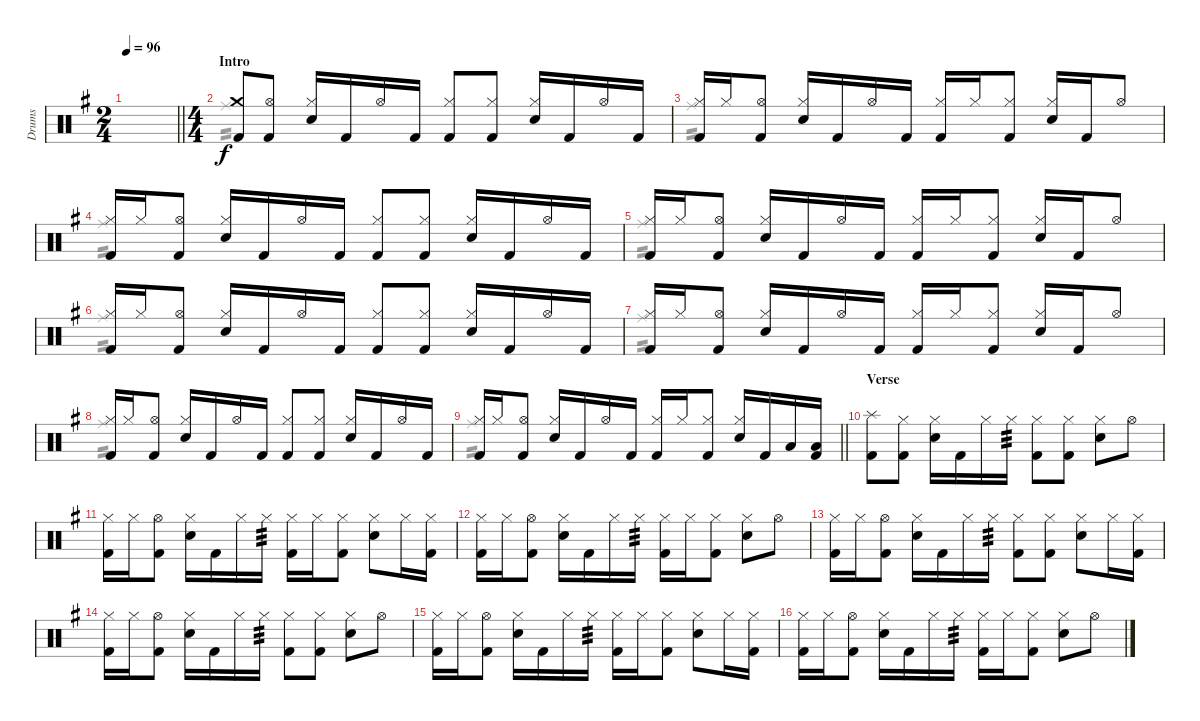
\track ("Drums" "Drums") {instrument percussion}
\staff {score}
\articulation defaults
\voice
\ts (2 4)
\tempo 96
\clef neutral
\barLineRight lightlight
\ks g
|
\ts (4 4)
\section ("" "Intro")
("Crash medium (hit)" "Kick (hit) 2").8 ("Hi-Hat (open)" "Kick (hit) 2").8 ("Hi-Hat (closed)" "Electric Snare (hit)").16 "Kick (hit) 2".16 "Hi-Hat (open)".16 "Kick (hit) 2".16 ("Hi-Hat (closed)" "Kick (hit) 2").8 ("Hi-Hat (closed)" "Kick (hit) 2").8 ("Hi-Hat (closed)" "Electric Snare (hit)").16 "Kick (hit) 2".16 "Hi-Hat (open)".16 "Kick (hit) 2".16 |
("Hi-Hat (closed)" "Kick (hit) 2").16 "Hi-Hat (closed)".16 ("Hi-Hat (open)" "Kick (hit) 2").8 ("Hi-Hat (closed)" "Electric Snare (hit)").16 "Kick (hit) 2".16 "Hi-Hat (open)".16 "Kick (hit) 2".16 ("Hi-Hat (closed)" "Kick (hit) 2").16 "Hi-Hat (closed)".16 ("Hi-Hat (closed)" "Kick (hit) 2").8 ("Hi-Hat (closed)" "Electric Snare (hit)").16 "Kick (hit) 2".16 "Hi-Hat (open)".8 |
("Hi-Hat (closed)" "Kick (hit) 2").16 "Hi-Hat (closed)".16 ("Hi-Hat (open)" "Kick (hit) 2").8 ("Hi-Hat (closed)" "Electric Snare (hit)").16 "Kick (hit) 2".16 "Hi-Hat (open)".16 "Kick (hit) 2".16 ("Hi-Hat (closed)" "Kick (hit) 2").8 ("Hi-Hat (closed)" "Kick (hit) 2").8 ("Hi-Hat (closed)" "Electric Snare (hit)").16 "Kick (hit) 2".16 "Hi-Hat (open)".16 "Kick (hit) 2".16 |
("Hi-Hat (closed)" "Kick (hit) 2").16 "Hi-Hat (closed)".16 ("Hi-Hat (open)" "Kick (hit) 2").8 ("Hi-Hat (closed)" "Electric Snare (hit)").16 "Kick (hit) 2".16 "Hi-Hat (open)".16 "Kick (hit) 2".16 ("Hi-Hat (closed)" "Kick (hit) 2").16 "Hi-Hat (closed)".16 ("Hi-Hat (closed)" "Kick (hit) 2").8 ("Hi-Hat (closed)" "Electric Snare (hit)").16 "Kick (hit) 2".16 "Hi-Hat (open)".8 |
("Hi-Hat (closed)" "Kick (hit) 2").16 "Hi-Hat (closed)".16 ("Hi-Hat (open)" "Kick (hit) 2").8 ("Hi-Hat (closed)" "Electric Snare (hit)").16 "Kick (hit) 2".16 "Hi-Hat (open)".16 "Kick (hit) 2".16 ("Hi-Hat (closed)" "Kick (hit) 2").8 ("Hi-Hat (closed)" "Kick (hit) 2").8 ("Hi-Hat (closed)" "Electric Snare (hit)").16 "Kick (hit) 2".16 "Hi-Hat (open)".16 "Kick (hit) 2".16 |
("Hi-Hat (closed)" "Kick (hit) 2").16 "Hi-Hat (closed)".16 ("Hi-Hat (open)" "Kick (hit) 2").8 ("Hi-Hat (closed)" "Electric Snare (hit)").16 "Kick (hit) 2".16 "Hi-Hat (open)".16 "Kick (hit) 2".16 ("Hi-Hat (closed)" "Kick (hit) 2").16 "Hi-Hat (closed)".16 ("Hi-Hat (closed)" "Kick (hit) 2").8 ("Hi-Hat (closed)" "Electric Snare (hit)").16 "Kick (hit) 2".16 "Hi-Hat (open)".8 |
("Hi-Hat (closed)" "Kick (hit) 2").16 "Hi-Hat (closed)".16 ("Hi-Hat (open)" "Kick (hit) 2").8 ("Hi-Hat (closed)" "Electric Snare (hit)").16 "Kick (hit) 2".16 "Hi-Hat (open)".16 "Kick (hit) 2".16 ("Hi-Hat (closed)" "Kick (hit) 2").8 ("Hi-Hat (closed)" "Kick (hit) 2").8 ("Hi-Hat (closed)" "Electric Snare (hit)").16 "Kick (hit) 2".16 "Hi-Hat (open)".16 "Kick (hit) 2".16 |
\barLineRight lightlight
("Hi-Hat (closed)" "Kick (hit) 2").16 "Hi-Hat (closed)".16 ("Hi-Hat (open)" "Kick (hit) 2").8 ("Hi-Hat (closed)" "Electric Snare (hit)").16 "Kick (hit) 2".16 "Hi-Hat (open)".16 "Kick (hit) 2".16 ("Hi-Hat (closed)" "Kick (hit) 2").16 "Hi-Hat (closed)".16 ("Hi-Hat (closed)" "Kick (hit) 2").8 ("Hi-Hat (closed)" "Electric Snare (hit)").16 "Kick (hit) 2".16 "Low Tom (hit)".16 ("Low Tom (hit)" "Kick (hit) 2").16 |
\section ("" "Verse")
("Splash (hit)" "Kick (hit) 2").8 ("Hi-Hat (closed)" "Kick (hit) 2").8 ("Hi-Hat (closed)" "Electric Snare (hit)").16 "Kick (hit) 2".16 "Hi-Hat (closed)".16 "Hi-Hat (closed)".16{tp 3} ("Hi-Hat (closed)" "Kick (hit) 2").8 ("Hi-Hat (closed)" "Kick (hit) 2").8 ("Hi-Hat (closed)" "Electric Snare (hit)").8 "Hi-Hat (open)".8 |
("Hi-Hat (closed)" "Kick (hit) 2").16 "Hi-Hat (closed)".16 ("Hi-Hat (open)" "Kick (hit) 2").8 ("Hi-Hat (closed)" "Electric Snare (hit)").16 "Kick (hit) 2".16 "Hi-Hat (closed)".16 "Hi-Hat (closed)".16{tp 3} ("Hi-Hat (closed)" "Kick (hit) 2").16 "Hi-Hat (closed)".16 ("Hi-Hat (closed)" "Kick (hit) 2").8 ("Hi-Hat (closed)" "Electric Snare (hit)").8 "Hi-Hat (closed)".16 ("Hi-Hat (closed)" "Kick (hit) 2").16 |
("Hi-Hat (closed)" "Kick (hit) 2").16 "Hi-Hat (closed)".16 ("Hi-Hat (open)" "Kick (hit) 2").8 ("Hi-Hat (closed)" "Electric Snare (hit)").16 "Kick (hit) 2".16 "Hi-Hat (closed)".16 "Hi-Hat (closed)".16{tp 3} ("Hi-Hat (closed)" "Kick (hit) 2").16 "Hi-Hat (closed)".16 ("Hi-Hat (closed)" "Kick (hit) 2").8 ("Hi-Hat (closed)" "Electric Snare (hit)").8 "Hi-Hat (open)".8 |
("Hi-Hat (closed)" "Kick (hit) 2").16 "Hi-Hat (closed)".16 ("Hi-Hat (open)" "Kick (hit) 2").8 ("Hi-Hat (closed)" "Electric Snare (hit)").16 "Kick (hit) 2".16 "Hi-Hat (closed)".16 "Hi-Hat (closed)".16{tp 3} ("Hi-Hat (closed)" "Kick (hit) 2").8 ("Hi-Hat (closed)" "Kick (hit) 2").8 ("Hi-Hat (closed)" "Electric Snare (hit)").8 "Hi-Hat (closed)".16 ("Hi-Hat (closed)" "Kick (hit) 2").16 |
("Hi-Hat (closed)" "Kick (hit) 2").16 "Hi-Hat (closed)".16 ("Hi-Hat (open)" "Kick (hit) 2").8 ("Hi-Hat (closed)" "Electric Snare (hit)").16 "Kick (hit) 2".16 "Hi-Hat (closed)".16 "Hi-Hat (closed)".16{tp 3} ("Hi-Hat (closed)" "Kick (hit) 2").8 ("Hi-Hat (closed)" "Kick (hit) 2").8 ("Hi-Hat (closed)" "Electric Snare (hit)").8 "Hi-Hat (open)".8 |
("Hi-Hat (closed)" "Kick (hit) 2").16 "Hi-Hat (closed)".16 ("Hi-Hat (open)" "Kick (hit) 2").8 ("Hi-Hat (closed)" "Electric Snare (hit)").16 "Kick (hit) 2".16 "Hi-Hat (closed)".16 "Hi-Hat (closed)".16{tp 3} ("Hi-Hat (closed)" "Kick (hit) 2").16 "Hi-Hat (closed)".16 ("Hi-Hat (closed)" "Kick (hit) 2").8 ("Hi-Hat (closed)" "Electric Snare (hit)").8 "Hi-Hat (closed)".16 ("Hi-Hat (closed)" "Kick (hit) 2").16 |
("Hi-Hat (closed)" "Kick (hit) 2").16 "Hi-Hat (closed)".16 ("Hi-Hat (open)" "Kick (hit) 2").8 ("Hi-Hat (closed)" "Electric Snare (hit)").16 "Kick (hit) 2".16 "Hi-Hat (closed)".16 "Hi-Hat (closed)".16{tp 3} ("Hi-Hat (closed)" "Kick (hit) 2").16 "Hi-Hat (closed)".16 ("Hi-Hat (closed)" "Kick (hit) 2").8 ("Hi-Hat (closed)" "Electric Snare (hit)").8 "Hi-Hat (open)".8
\voice
\clef neutral
\ottava regular
\simile none
\barLineRight lightlight
\ks g
|
"Ride (middle)".1{tp 2} |
"Ride (middle)".1{tp 2} |
"Ride (middle)".1{tp 2} |
"Ride (middle)".1{tp 2} |
"Ride (middle)".1{tp 2} |
"Ride (middle)".1{tp 2} |
"Ride (middle)".1{tp 2} |
\barLineRight lightlight "Ride (middle)".1{tp 2}
|
|
|
|
|
|
|
